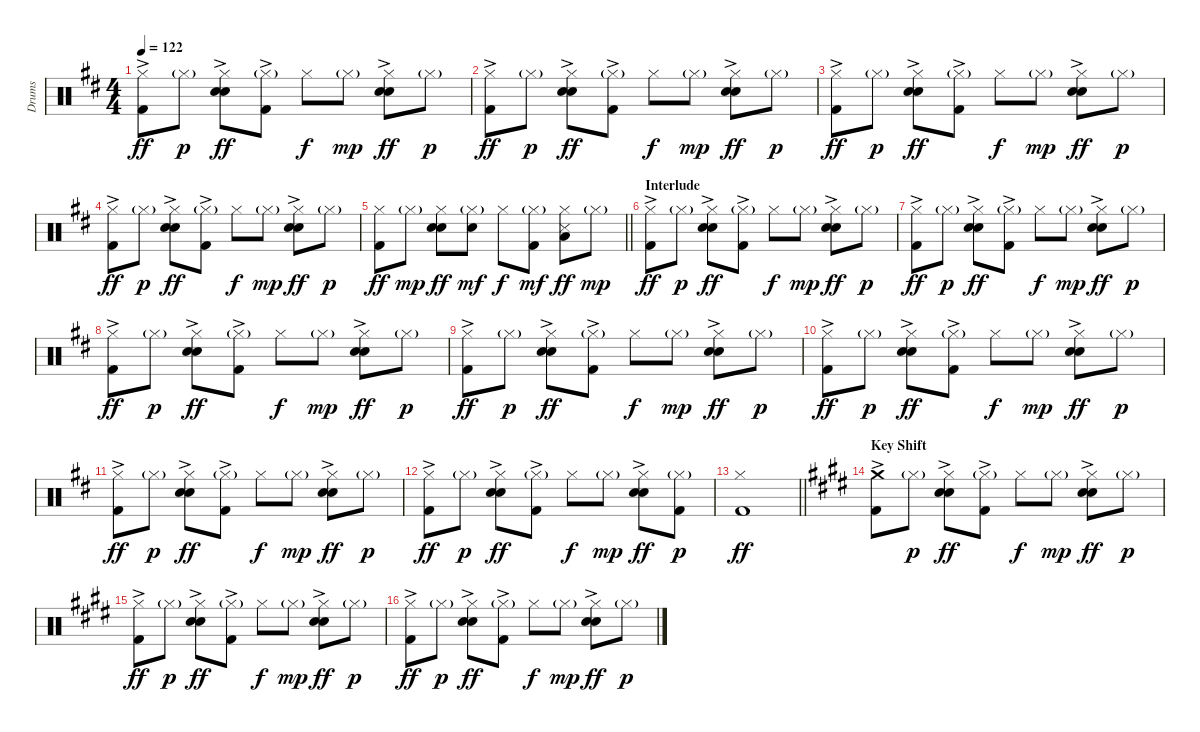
\track ("Drums" "Drums") {instrument percussion}
\staff {score}
\articulation defaults
\ts (4 4)
\tempo 122
\clef neutral
\ks d
("Hi-Hat (closed)" "Kick (hit) 2"{ac}).8{dy ff} "Hi-Hat (closed)"{g}.8{dy p} ("Hi-Hat (closed)" "Electric Snare (hit)"{ac} "Snare (hit) 2").8{dy ff} ("Hi-Hat (closed)"{g} "Kick (hit) 2"{ac}).8 "Hi-Hat (closed)".8{dy f} "Hi-Hat (closed)"{g}.8{dy mp} ("Hi-Hat (closed)" "Electric Snare (hit)"{ac} "Snare (hit) 2").8{dy ff} "Hi-Hat (closed)"{g}.8{dy p} |
("Hi-Hat (closed)" "Kick (hit) 2"{ac}).8{dy ff} "Hi-Hat (closed)"{g}.8{dy p} ("Hi-Hat (closed)" "Electric Snare (hit)"{ac} "Snare (hit) 2").8{dy ff} ("Hi-Hat (closed)"{g} "Kick (hit) 2"{ac}).8 "Hi-Hat (closed)".8{dy f} "Hi-Hat (closed)"{g}.8{dy mp} ("Hi-Hat (closed)" "Electric Snare (hit)"{ac} "Snare (hit) 2").8{dy ff} "Hi-Hat (closed)"{g}.8{dy p} |
("Hi-Hat (closed)" "Kick (hit) 2"{ac}).8{dy ff} "Hi-Hat (closed)"{g}.8{dy p} ("Hi-Hat (closed)" "Electric Snare (hit)"{ac} "Snare (hit) 2").8{dy ff} ("Hi-Hat (closed)"{g} "Kick (hit) 2"{ac}).8 "Hi-Hat (closed)".8{dy f} "Hi-Hat (closed)"{g}.8{dy mp} ("Hi-Hat (closed)" "Electric Snare (hit)"{ac} "Snare (hit) 2").8{dy ff} "Hi-Hat (closed)"{g}.8{dy p} |
("Hi-Hat (closed)" "Kick (hit) 2"{ac}).8{dy ff} "Hi-Hat (closed)"{g}.8{dy p} ("Hi-Hat (closed)" "Electric Snare (hit)"{ac} "Snare (hit) 2").8{dy ff} ("Hi-Hat (closed)"{g} "Kick (hit) 2"{ac}).8 "Hi-Hat (closed)".8{dy f} "Hi-Hat (closed)"{g}.8{dy mp} ("Hi-Hat (closed)" "Electric Snare (hit)"{ac} "Snare (hit) 2").8{dy ff} "Hi-Hat (closed)"{g}.8{dy p} |
\barLineRight lightlight
("Hi-Hat (closed)" "Kick (hit) 2").8{dy ff} "Hi-Hat (closed)"{g}.8{dy mp} ("Hi-Hat (closed)" "Electric Snare (hit)" "Snare (hit) 2").8{dy ff} ("Hi-Hat (closed)"{g} "Electric Snare (hit)").8{dy mf} "Hi-Hat (closed)".8{dy f} ("Hi-Hat (closed)"{g} "Kick (hit) 2").8{dy mf} ("Hi-Hat (closed)" "Snare (side stick) 3" "Low Tom (hit)").8{dy ff} "Hi-Hat (closed)"{g}.8{dy mp} |
\section ("" "Interlude")
("Hi-Hat (closed)" "Kick (hit) 2"{ac}).8{dy ff} "Hi-Hat (closed)"{g}.8{dy p} ("Hi-Hat (closed)" "Electric Snare (hit)"{ac} "Snare (hit) 2").8{dy ff} ("Hi-Hat (closed)"{g} "Kick (hit) 2"{ac}).8 "Hi-Hat (closed)".8{dy f} "Hi-Hat (closed)"{g}.8{dy mp} ("Hi-Hat (closed)" "Electric Snare (hit)"{ac} "Snare (hit) 2").8{dy ff} "Hi-Hat (closed)"{g}.8{dy p} |
("Hi-Hat (closed)" "Kick (hit) 2"{ac}).8{dy ff} "Hi-Hat (closed)"{g}.8{dy p} ("Hi-Hat (closed)" "Electric Snare (hit)"{ac} "Snare (hit) 2").8{dy ff} ("Hi-Hat (closed)"{g} "Kick (hit) 2"{ac}).8 "Hi-Hat (closed)".8{dy f} "Hi-Hat (closed)"{g}.8{dy mp} ("Hi-Hat (closed)" "Electric Snare (hit)"{ac} "Snare (hit) 2").8{dy ff} "Hi-Hat (closed)"{g}.8{dy p} |
("Hi-Hat (closed)" "Kick (hit) 2"{ac}).8{dy ff} "Hi-Hat (closed)"{g}.8{dy p} ("Hi-Hat (closed)" "Electric Snare (hit)"{ac} "Snare (hit) 2").8{dy ff} ("Hi-Hat (closed)"{g} "Kick (hit) 2"{ac}).8 "Hi-Hat (closed)".8{dy f} "Hi-Hat (closed)"{g}.8{dy mp} ("Hi-Hat (closed)" "Electric Snare (hit)"{ac} "Snare (hit) 2").8{dy ff} "Hi-Hat (closed)"{g}.8{dy p} |
("Hi-Hat (closed)" "Kick (hit) 2"{ac}).8{dy ff} "Hi-Hat (closed)"{g}.8{dy p} ("Hi-Hat (closed)" "Electric Snare (hit)"{ac} "Snare (hit) 2").8{dy ff} ("Hi-Hat (closed)"{g} "Kick (hit) 2"{ac}).8 "Hi-Hat (closed)".8{dy f} "Hi-Hat (closed)"{g}.8{dy mp} ("Hi-Hat (closed)" "Electric Snare (hit)"{ac} "Snare (hit) 2").8{dy ff} "Hi-Hat (closed)"{g}.8{dy p} |
("Hi-Hat (closed)" "Kick (hit) 2"{ac}).8{dy ff} "Hi-Hat (closed)"{g}.8{dy p} ("Hi-Hat (closed)" "Electric Snare (hit)"{ac} "Snare (hit) 2").8{dy ff} ("Hi-Hat (closed)"{g} "Kick (hit) 2"{ac}).8 "Hi-Hat (closed)".8{dy f} "Hi-Hat (closed)"{g}.8{dy mp} ("Hi-Hat (closed)" "Electric Snare (hit)"{ac} "Snare (hit) 2").8{dy ff} "Hi-Hat (closed)"{g}.8{dy p} |
("Hi-Hat (closed)" "Kick (hit) 2"{ac}).8{dy ff} "Hi-Hat (closed)"{g}.8{dy p} ("Hi-Hat (closed)" "Electric Snare (hit)"{ac} "Snare (hit) 2").8{dy ff} ("Hi-Hat (closed)"{g} "Kick (hit) 2"{ac}).8 "Hi-Hat (closed)".8{dy f} "Hi-Hat (closed)"{g}.8{dy mp} ("Hi-Hat (closed)" "Electric Snare (hit)"{ac} "Snare (hit) 2").8{dy ff} "Hi-Hat (closed)"{g}.8{dy p} |
("Hi-Hat (closed)" "Kick (hit) 2"{ac}).8{dy ff} "Hi-Hat (closed)"{g}.8{dy p} ("Hi-Hat (closed)" "Electric Snare (hit)"{ac} "Snare (hit) 2").8{dy ff} ("Hi-Hat (closed)"{g} "Kick (hit) 2"{ac}).8 "Hi-Hat (closed)".8{dy f} "Hi-Hat (closed)"{g}.8{dy mp} ("Hi-Hat (closed)" "Electric Snare (hit)"{ac} "Snare (hit) 2").8{dy ff} ("Hi-Hat (closed)"{g} "Kick (hit) 2").8{dy p} |
\barLineRight lightlight
("Hi-Hat (closed)" "Kick (hit) 2").1{dy ff} |
\section ("" "Key Shift")
\ks e
("Crash medium (hit)" "Kick (hit) 2"{ac}).8 "Hi-Hat (closed)"{g}.8{dy p} ("Hi-Hat (closed)" "Electric Snare (hit)"{ac} "Snare (hit) 2").8{dy ff} ("Hi-Hat (closed)"{g} "Kick (hit) 2"{ac}).8 "Hi-Hat (closed)".8{dy f} "Hi-Hat (closed)"{g}.8{dy mp} ("Hi-Hat (closed)" "Electric Snare (hit)"{ac} "Snare (hit) 2").8{dy ff} "Hi-Hat (closed)"{g}.8{dy p} |
("Hi-Hat (closed)" "Kick (hit) 2"{ac}).8{dy ff} "Hi-Hat (closed)"{g}.8{dy p} ("Hi-Hat (closed)" "Electric Snare (hit)"{ac} "Snare (hit) 2").8{dy ff} ("Hi-Hat (closed)"{g} "Kick (hit) 2"{ac}).8 "Hi-Hat (closed)".8{dy f} "Hi-Hat (closed)"{g}.8{dy mp} ("Hi-Hat (closed)" "Electric Snare (hit)"{ac} "Snare (hit) 2").8{dy ff} "Hi-Hat (closed)"{g}.8{dy p} |
("Hi-Hat (closed)" "Kick (hit) 2"{ac}).8{dy ff} "Hi-Hat (closed)"{g}.8{dy p} ("Hi-Hat (closed)" "Electric Snare (hit)"{ac} "Snare (hit) 2").8{dy ff} ("Hi-Hat (closed)"{g} "Kick (hit) 2"{ac}).8 "Hi-Hat (closed)".8{dy f} "Hi-Hat (closed)"{g}.8{dy mp} ("Hi-Hat (closed)" "Electric Snare (hit)"{ac} "Snare (hit) 2").8{dy ff} "Hi-Hat (closed)"{g}.8{dy p}
